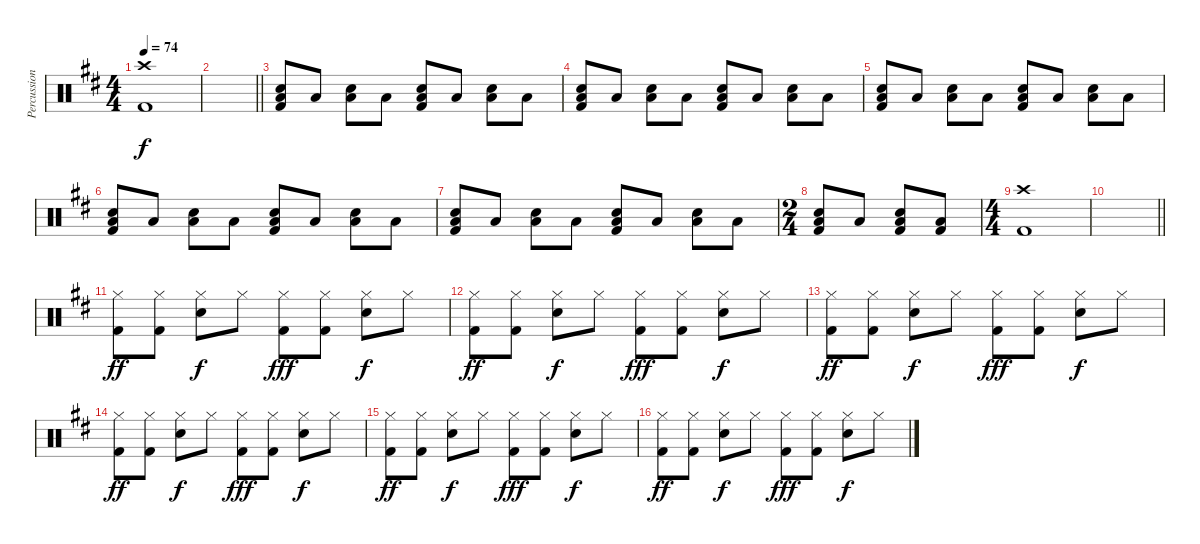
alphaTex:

\track ("Percussion" "Percussion") {instrument percussion}
\staff {score}
\articulation defaults
\ts (4 4)
\tempo 74
\clef neutral
\ks d
("Crash high (hit)" "Kick (hit) 2").1{dy f} |
\barLineRight lightlight
|
("Snare (hit) 2" "Low Floor Tom (hit)" "Kick (hit) 2").8 "Low Floor Tom (hit)".8 ("Snare (hit) 2" "Low Floor Tom (hit)").8 "Low Floor Tom (hit)".8 ("Snare (hit) 2" "Low Floor Tom (hit)" "Kick (hit) 2").8 "Low Floor Tom (hit)".8 ("Snare (hit) 2" "Low Floor Tom (hit)").8 "Low Floor Tom (hit)".8 |
("Snare (hit) 2" "Low Floor Tom (hit)" "Kick (hit) 2").8 "Low Floor Tom (hit)".8 ("Snare (hit) 2" "Low Floor Tom (hit)").8 "Low Floor Tom (hit)".8 ("Snare (hit) 2" "Low Floor Tom (hit)" "Kick (hit) 2").8 "Low Floor Tom (hit)".8 ("Snare (hit) 2" "Low Floor Tom (hit)").8 "Low Floor Tom (hit)".8 |
("Snare (hit) 2" "Low Floor Tom (hit)" "Kick (hit) 2").8 "Low Floor Tom (hit)".8 ("Snare (hit) 2" "Low Floor Tom (hit)").8 "Low Floor Tom (hit)".8 ("Snare (hit) 2" "Low Floor Tom (hit)" "Kick (hit) 2").8 "Low Floor Tom (hit)".8 ("Snare (hit) 2" "Low Floor Tom (hit)").8 "Low Floor Tom (hit)".8 |
("Snare (hit) 2" "Low Floor Tom (hit)" "Kick (hit) 2").8 "Low Floor Tom (hit)".8 ("Snare (hit) 2" "Low Floor Tom (hit)").8 "Low Floor Tom (hit)".8 ("Snare (hit) 2" "Low Floor Tom (hit)" "Kick (hit) 2").8 "Low Floor Tom (hit)".8 ("Snare (hit) 2" "Low Floor Tom (hit)").8 "Low Floor Tom (hit)".8 |
("Snare (hit) 2" "Low Floor Tom (hit)" "Kick (hit) 2").8 "Low Floor Tom (hit)".8 ("Snare (hit) 2" "Low Floor Tom (hit)").8 "Low Floor Tom (hit)".8 ("Snare (hit) 2" "Low Floor Tom (hit)" "Kick (hit) 2").8 "Low Floor Tom (hit)".8 ("Snare (hit) 2" "Low Floor Tom (hit)").8 "Low Floor Tom (hit)".8 |
\ts (2 4)
("Snare (hit) 2" "Low Floor Tom (hit)" "Kick (hit) 2").8 "Low Floor Tom (hit)".8 ("Snare (hit) 2" "Low Floor Tom (hit)" "Kick (hit) 2").8 ("Low Floor Tom (hit)" "Kick (hit) 2").8 |
\ts (4 4)
("Crash high (hit)" "Kick (hit) 2").1 |
\barLineRight lightlight
|
("Hi-Hat (closed)" "Kick (hit) 2").8{dy ff} ("Hi-Hat (closed)" "Kick (hit) 2").8 ("Hi-Hat (closed)" "Snare (hit) 2").8{dy f} "Hi-Hat (closed)".8 ("Hi-Hat (closed)" "Kick (hit) 2").8{dy fff} ("Hi-Hat (closed)" "Kick (hit) 2").8 ("Hi-Hat (closed)" "Snare (hit) 2").8{dy f} "Hi-Hat (closed)".8 |
("Hi-Hat (closed)" "Kick (hit) 2").8{dy ff} ("Hi-Hat (closed)" "Kick (hit) 2").8 ("Hi-Hat (closed)" "Snare (hit) 2").8{dy f} "Hi-Hat (closed)".8 ("Hi-Hat (closed)" "Kick (hit) 2").8{dy fff} ("Hi-Hat (closed)" "Kick (hit) 2").8 ("Hi-Hat (closed)" "Snare (hit) 2").8{dy f} "Hi-Hat (closed)".8 |
("Hi-Hat (closed)" "Kick (hit) 2").8{dy ff} ("Hi-Hat (closed)" "Kick (hit) 2").8 ("Hi-Hat (closed)" "Snare (hit) 2").8{dy f} "Hi-Hat (closed)".8 ("Hi-Hat (closed)" "Kick (hit) 2").8{dy fff} ("Hi-Hat (closed)" "Kick (hit) 2").8 ("Hi-Hat (closed)" "Snare (hit) 2").8{dy f} "Hi-Hat (closed)".8 |
("Hi-Hat (closed)" "Kick (hit) 2").8{dy ff} ("Hi-Hat (closed)" "Kick (hit) 2").8 ("Hi-Hat (closed)" "Snare (hit) 2").8{dy f} "Hi-Hat (closed)".8 ("Hi-Hat (closed)" "Kick (hit) 2").8{dy fff} ("Hi-Hat (closed)" "Kick (hit) 2").8 ("Hi-Hat (closed)" "Snare (hit) 2").8{dy f} "Hi-Hat (closed)".8 |
("Hi-Hat (closed)" "Kick (hit) 2").8{dy ff} ("Hi-Hat (closed)" "Kick (hit) 2").8 ("Hi-Hat (closed)" "Snare (hit) 2").8{dy f} "Hi-Hat (closed)".8 ("Hi-Hat (closed)" "Kick (hit) 2").8{dy fff} ("Hi-Hat (closed)" "Kick (hit) 2").8 ("Hi-Hat (closed)" "Snare (hit) 2").8{dy f} "Hi-Hat (closed)".8 |
("Hi-Hat (closed)" "Kick (hit) 2").8{dy ff} ("Hi-Hat (closed)" "Kick (hit) 2").8 ("Hi-Hat (closed)" "Snare (hit) 2").8{dy f} "Hi-Hat (closed)".8 ("Hi-Hat (closed)" "Kick (hit) 2").8{dy fff} ("Hi-Hat (closed)" "Kick (hit) 2").8 ("Hi-Hat (closed)" "Snare (hit) 2").8{dy f} "Hi-Hat (closed)".8
